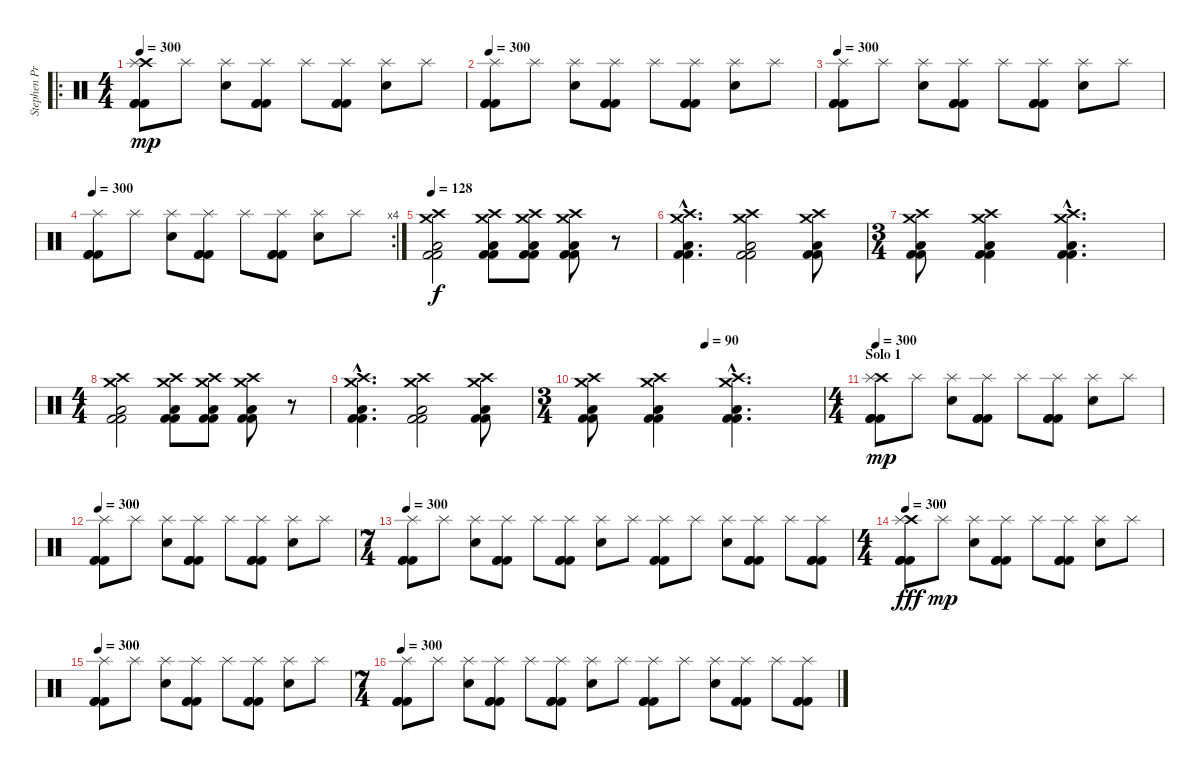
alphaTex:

\track ("Stephen Priestly  (Drums)" "Stephen Pr") {instrument percussion}
\staff {score}
\articulation defaults
\ro
\ts (4 4)
\tempo 300
\clef neutral
\ks c
("Crash high (hit)" "Splash (hit)" "Kick (hit) 2" "Kick (hit) 2" "Kick (hit) 2").8{dy mp} "Splash (hit)".8 ("Splash (hit)" "Electric Snare (hit)").8 ("Splash (hit)" "Kick (hit) 2" "Kick (hit) 2" "Kick (hit) 2").8 "Splash (hit)".8 ("Splash (hit)" "Kick (hit) 2" "Kick (hit) 2" "Kick (hit) 2").8 ("Splash (hit)" "Electric Snare (hit)").8 "Splash (hit)".8 |
\tempo 300
("Splash (hit)" "Kick (hit) 2" "Kick (hit) 2" "Kick (hit) 2").8 "Splash (hit)".8 ("Splash (hit)" "Electric Snare (hit)").8 ("Splash (hit)" "Kick (hit) 2" "Kick (hit) 2" "Kick (hit) 2").8 "Splash (hit)".8 ("Splash (hit)" "Kick (hit) 2" "Kick (hit) 2" "Kick (hit) 2").8 ("Splash (hit)" "Electric Snare (hit)").8 "Splash (hit)".8 |
\tempo 300
("Splash (hit)" "Kick (hit) 2" "Kick (hit) 2" "Kick (hit) 2").8 "Splash (hit)".8 ("Splash (hit)" "Electric Snare (hit)").8 ("Splash (hit)" "Kick (hit) 2" "Kick (hit) 2" "Kick (hit) 2").8 "Splash (hit)".8 ("Splash (hit)" "Kick (hit) 2" "Kick (hit) 2" "Kick (hit) 2").8 ("Splash (hit)" "Electric Snare (hit)").8 "Splash (hit)".8 |
\rc 4
\tempo 300
("Splash (hit)" "Kick (hit) 2" "Kick (hit) 2" "Kick (hit) 2").8 "Splash (hit)".8 ("Splash (hit)" "Electric Snare (hit)").8 ("Splash (hit)" "Kick (hit) 2" "Kick (hit) 2" "Kick (hit) 2").8 "Splash (hit)".8 ("Splash (hit)" "Kick (hit) 2" "Kick (hit) 2" "Kick (hit) 2").8 ("Splash (hit)" "Electric Snare (hit)").8 "Splash (hit)".8 |
\tempo 128
("Low Floor Tom (hit)" "Kick (hit) 2" "Crash high (hit)" "Crash medium (hit)" "Kick (hit) 2").2{dy f} ("Low Floor Tom (hit)" "Kick (hit) 2" "Crash high (hit)" "Crash medium (hit)" "Kick (hit) 2").8 ("Low Floor Tom (hit)" "Kick (hit) 2" "Crash high (hit)" "Crash medium (hit)" "Kick (hit) 2").8 ("Low Floor Tom (hit)" "Kick (hit) 2" "Crash high (hit)" "Crash medium (hit)" "Kick (hit) 2").8 r.8 |
("Low Floor Tom (hit)"{hac} "Kick (hit) 2"{hac} "Crash high (hit)"{hac} "Crash medium (hit)"{hac} "Kick (hit) 2"{hac}).4{d} ("Low Floor Tom (hit)" "Kick (hit) 2" "Crash high (hit)" "Crash medium (hit)" "Kick (hit) 2").2 ("Low Floor Tom (hit)" "Kick (hit) 2" "Crash high (hit)" "Crash medium (hit)" "Kick (hit) 2").8 |
\ts (3 4)
("Low Floor Tom (hit)" "Kick (hit) 2" "Crash high (hit)" "Crash medium (hit)" "Kick (hit) 2").8 ("Low Floor Tom (hit)" "Kick (hit) 2" "Crash high (hit)" "Crash medium (hit)" "Kick (hit) 2").4 ("Low Floor Tom (hit)"{hac} "Kick (hit) 2"{hac} "Crash high (hit)"{hac} "Crash medium (hit)"{hac} "Kick (hit) 2"{hac}).4{d} |
\ts (4 4)
("Low Floor Tom (hit)" "Kick (hit) 2" "Crash high (hit)" "Crash medium (hit)" "Kick (hit) 2").2 ("Low Floor Tom (hit)" "Kick (hit) 2" "Crash high (hit)" "Crash medium (hit)" "Kick (hit) 2").8 ("Low Floor Tom (hit)" "Kick (hit) 2" "Crash high (hit)" "Crash medium (hit)" "Kick (hit) 2").8 ("Low Floor Tom (hit)" "Kick (hit) 2" "Crash high (hit)" "Crash medium (hit)" "Kick (hit) 2").8 r.8 |
("Low Floor Tom (hit)"{hac} "Kick (hit) 2"{hac} "Crash high (hit)"{hac} "Crash medium (hit)"{hac} "Kick (hit) 2"{hac}).4{d} ("Low Floor Tom (hit)" "Kick (hit) 2" "Crash high (hit)" "Crash medium (hit)" "Kick (hit) 2").2 ("Low Floor Tom (hit)" "Kick (hit) 2" "Crash high (hit)" "Crash medium (hit)" "Kick (hit) 2").8 |
\ts (3 4)
\tempo (90 0.5)
("Low Floor Tom (hit)" "Kick (hit) 2" "Crash high (hit)" "Crash medium (hit)" "Kick (hit) 2").8 ("Low Floor Tom (hit)" "Kick (hit) 2" "Crash high (hit)" "Crash medium (hit)" "Kick (hit) 2").4 ("Low Floor Tom (hit)"{hac} "Kick (hit) 2"{hac} "Crash high (hit)"{hac} "Crash medium (hit)"{hac} "Kick (hit) 2"{hac}).4{d} |
\ts (4 4)
\section ("" "Solo 1")
\tempo 128
\tempo 300
("Crash high (hit)" "Splash (hit)" "Kick (hit) 2" "Kick (hit) 2" "Kick (hit) 2").8{dy mp} "Splash (hit)".8 ("Splash (hit)" "Electric Snare (hit)").8 ("Splash (hit)" "Kick (hit) 2" "Kick (hit) 2" "Kick (hit) 2").8 "Splash (hit)".8 ("Splash (hit)" "Kick (hit) 2" "Kick (hit) 2" "Kick (hit) 2").8 ("Splash (hit)" "Electric Snare (hit)").8 "Splash (hit)".8 |
\tempo 300
("Splash (hit)" "Kick (hit) 2" "Kick (hit) 2" "Kick (hit) 2").8 "Splash (hit)".8 ("Splash (hit)" "Electric Snare (hit)").8 ("Splash (hit)" "Kick (hit) 2" "Kick (hit) 2" "Kick (hit) 2").8 "Splash (hit)".8 ("Splash (hit)" "Kick (hit) 2" "Kick (hit) 2" "Kick (hit) 2").8 ("Splash (hit)" "Electric Snare (hit)").8 "Splash (hit)".8 |
\ts (7 4)
\tempo 300
("Splash (hit)" "Kick (hit) 2" "Kick (hit) 2" "Kick (hit) 2").8 "Splash (hit)".8 ("Splash (hit)" "Electric Snare (hit)").8 ("Splash (hit)" "Kick (hit) 2" "Kick (hit) 2" "Kick (hit) 2").8 "Splash (hit)".8 ("Splash (hit)" "Kick (hit) 2" "Kick (hit) 2" "Kick (hit) 2").8 ("Splash (hit)" "Electric Snare (hit)").8 "Splash (hit)".8 ("Splash (hit)" "Kick (hit) 2" "Kick (hit) 2" "Kick (hit) 2").8 "Splash (hit)".8 ("Splash (hit)" "Electric Snare (hit)").8 ("Splash (hit)" "Kick (hit) 2" "Kick (hit) 2" "Kick (hit) 2").8 "Splash (hit)".8 ("Splash (hit)" "Kick (hit) 2" "Kick (hit) 2" "Kick (hit) 2").8 |
\ts (4 4)
\tempo 300
("Crash high (hit)" "Splash (hit)" "Kick (hit) 2" "Kick (hit) 2" "Kick (hit) 2").8{dy fff} "Splash (hit)".8{dy mp} ("Splash (hit)" "Electric Snare (hit)").8 ("Splash (hit)" "Kick (hit) 2" "Kick (hit) 2" "Kick (hit) 2").8 "Splash (hit)".8 ("Splash (hit)" "Kick (hit) 2" "Kick (hit) 2" "Kick (hit) 2").8 ("Splash (hit)" "Electric Snare (hit)").8 "Splash (hit)".8 |
\tempo 300
("Splash (hit)" "Kick (hit) 2" "Kick (hit) 2" "Kick (hit) 2").8 "Splash (hit)".8 ("Splash (hit)" "Electric Snare (hit)").8 ("Splash (hit)" "Kick (hit) 2" "Kick (hit) 2" "Kick (hit) 2").8 "Splash (hit)".8 ("Splash (hit)" "Kick (hit) 2" "Kick (hit) 2" "Kick (hit) 2").8 ("Splash (hit)" "Electric Snare (hit)").8 "Splash (hit)".8 |
\ts (7 4)
\tempo 300
("Splash (hit)" "Kick (hit) 2" "Kick (hit) 2" "Kick (hit) 2").8 "Splash (hit)".8 ("Splash (hit)" "Electric Snare (hit)").8 ("Splash (hit)" "Kick (hit) 2" "Kick (hit) 2" "Kick (hit) 2").8 "Splash (hit)".8 ("Splash (hit)" "Kick (hit) 2" "Kick (hit) 2" "Kick (hit) 2").8 ("Splash (hit)" "Electric Snare (hit)").8 "Splash (hit)".8 ("Splash (hit)" "Kick (hit) 2" "Kick (hit) 2" "Kick (hit) 2").8 "Splash (hit)".8 ("Splash (hit)" "Electric Snare (hit)").8 ("Splash (hit)" "Kick (hit) 2" "Kick (hit) 2" "Kick (hit) 2").8 "Splash (hit)".8 ("Splash (hit)" "Kick (hit) 2" "Kick (hit) 2" "Kick (hit) 2").8
